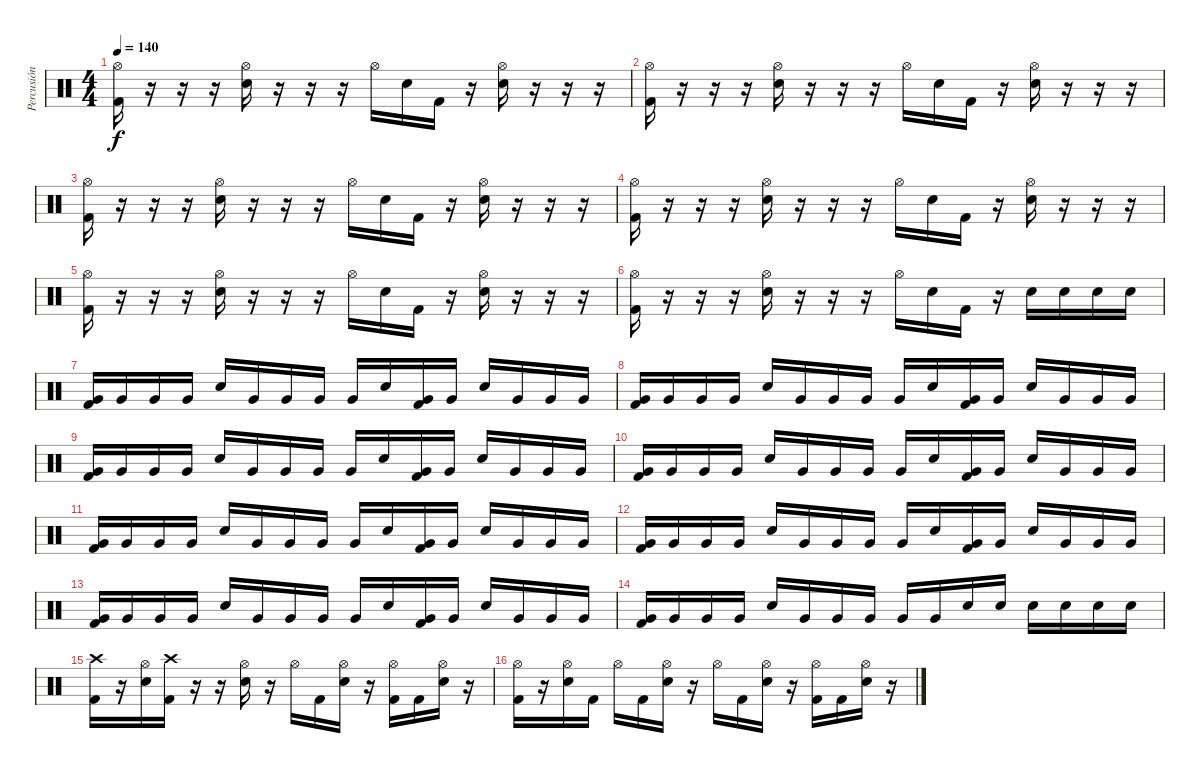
\track ("Percusión" "Percusión") {instrument percussion}
\staff {score}
\articulation defaults
\ts (4 4)
\tempo 140
\clef neutral
\ks c
("Hi-Hat (open)" "Kick (hit) 2").16{dy f} r.16 r.16 r.16 ("Hi-Hat (open)" "Snare (hit) 2").16 r.16 r.16 r.16 "Hi-Hat (open)".16 "Snare (hit) 2".16 "Kick (hit) 2".16 r.16 ("Hi-Hat (open)" "Snare (hit) 2").16 r.16 r.16 r.16 |
("Hi-Hat (open)" "Kick (hit) 2").16 r.16 r.16 r.16 ("Hi-Hat (open)" "Snare (hit) 2").16 r.16 r.16 r.16 "Hi-Hat (open)".16 "Snare (hit) 2".16 "Kick (hit) 2".16 r.16 ("Hi-Hat (open)" "Snare (hit) 2").16 r.16 r.16 r.16 |
("Hi-Hat (open)" "Kick (hit) 2").16 r.16 r.16 r.16 ("Hi-Hat (open)" "Snare (hit) 2").16 r.16 r.16 r.16 "Hi-Hat (open)".16 "Snare (hit) 2".16 "Kick (hit) 2".16 r.16 ("Hi-Hat (open)" "Snare (hit) 2").16 r.16 r.16 r.16 |
("Hi-Hat (open)" "Kick (hit) 2").16 r.16 r.16 r.16 ("Hi-Hat (open)" "Snare (hit) 2").16 r.16 r.16 r.16 "Hi-Hat (open)".16 "Snare (hit) 2".16 "Kick (hit) 2".16 r.16 ("Hi-Hat (open)" "Snare (hit) 2").16 r.16 r.16 r.16 |
("Hi-Hat (open)" "Kick (hit) 2").16 r.16 r.16 r.16 ("Hi-Hat (open)" "Snare (hit) 2").16 r.16 r.16 r.16 "Hi-Hat (open)".16 "Snare (hit) 2".16 "Kick (hit) 2".16 r.16 ("Hi-Hat (open)" "Snare (hit) 2").16 r.16 r.16 r.16 |
("Hi-Hat (open)" "Kick (hit) 2").16 r.16 r.16 r.16 ("Hi-Hat (open)" "Snare (hit) 2").16 r.16 r.16 r.16 "Hi-Hat (open)".16 "Snare (hit) 2".16 "Kick (hit) 2".16 r.16 "Snare (hit) 2".16 "Snare (hit) 2".16 "Snare (hit) 2".16 "Snare (hit) 2".16 |
("Very Low Tom (hit)" "Kick (hit) 2").16 "Very Low Tom (hit)".16 "Very Low Tom (hit)".16 "Very Low Tom (hit)".16 "Snare (hit) 2".16 "Very Low Tom (hit)".16 "Very Low Tom (hit)".16 "Very Low Tom (hit)".16 "Very Low Tom (hit)".16 "Snare (hit) 2".16 ("Very Low Tom (hit)" "Kick (hit) 2").16 "Very Low Tom (hit)".16 "Snare (hit) 2".16 "Very Low Tom (hit)".16 "Very Low Tom (hit)".16 "Very Low Tom (hit)".16 |
("Very Low Tom (hit)" "Kick (hit) 2").16 "Very Low Tom (hit)".16 "Very Low Tom (hit)".16 "Very Low Tom (hit)".16 "Snare (hit) 2".16 "Very Low Tom (hit)".16 "Very Low Tom (hit)".16 "Very Low Tom (hit)".16 "Very Low Tom (hit)".16 "Snare (hit) 2".16 ("Very Low Tom (hit)" "Kick (hit) 2").16 "Very Low Tom (hit)".16 "Snare (hit) 2".16 "Very Low Tom (hit)".16 "Very Low Tom (hit)".16 "Very Low Tom (hit)".16 |
("Very Low Tom (hit)" "Kick (hit) 2").16 "Very Low Tom (hit)".16 "Very Low Tom (hit)".16 "Very Low Tom (hit)".16 "Snare (hit) 2".16 "Very Low Tom (hit)".16 "Very Low Tom (hit)".16 "Very Low Tom (hit)".16 "Very Low Tom (hit)".16 "Snare (hit) 2".16 ("Very Low Tom (hit)" "Kick (hit) 2").16 "Very Low Tom (hit)".16 "Snare (hit) 2".16 "Very Low Tom (hit)".16 "Very Low Tom (hit)".16 "Very Low Tom (hit)".16 |
("Very Low Tom (hit)" "Kick (hit) 2").16 "Very Low Tom (hit)".16 "Very Low Tom (hit)".16 "Very Low Tom (hit)".16 "Snare (hit) 2".16 "Very Low Tom (hit)".16 "Very Low Tom (hit)".16 "Very Low Tom (hit)".16 "Very Low Tom (hit)".16 "Snare (hit) 2".16 ("Very Low Tom (hit)" "Kick (hit) 2").16 "Very Low Tom (hit)".16 "Snare (hit) 2".16 "Very Low Tom (hit)".16 "Very Low Tom (hit)".16 "Very Low Tom (hit)".16 |
("Very Low Tom (hit)" "Kick (hit) 2").16 "Very Low Tom (hit)".16 "Very Low Tom (hit)".16 "Very Low Tom (hit)".16 "Snare (hit) 2".16 "Very Low Tom (hit)".16 "Very Low Tom (hit)".16 "Very Low Tom (hit)".16 "Very Low Tom (hit)".16 "Snare (hit) 2".16 ("Very Low Tom (hit)" "Kick (hit) 2").16 "Very Low Tom (hit)".16 "Snare (hit) 2".16 "Very Low Tom (hit)".16 "Very Low Tom (hit)".16 "Very Low Tom (hit)".16 |
("Very Low Tom (hit)" "Kick (hit) 2").16 "Very Low Tom (hit)".16 "Very Low Tom (hit)".16 "Very Low Tom (hit)".16 "Snare (hit) 2".16 "Very Low Tom (hit)".16 "Very Low Tom (hit)".16 "Very Low Tom (hit)".16 "Very Low Tom (hit)".16 "Snare (hit) 2".16 ("Very Low Tom (hit)" "Kick (hit) 2").16 "Very Low Tom (hit)".16 "Snare (hit) 2".16 "Very Low Tom (hit)".16 "Very Low Tom (hit)".16 "Very Low Tom (hit)".16 |
("Very Low Tom (hit)" "Kick (hit) 2").16 "Very Low Tom (hit)".16 "Very Low Tom (hit)".16 "Very Low Tom (hit)".16 "Snare (hit) 2".16 "Very Low Tom (hit)".16 "Very Low Tom (hit)".16 "Very Low Tom (hit)".16 "Very Low Tom (hit)".16 "Snare (hit) 2".16 ("Very Low Tom (hit)" "Kick (hit) 2").16 "Very Low Tom (hit)".16 "Snare (hit) 2".16 "Very Low Tom (hit)".16 "Very Low Tom (hit)".16 "Very Low Tom (hit)".16 |
("Very Low Tom (hit)" "Kick (hit) 2").16 "Very Low Tom (hit)".16 "Very Low Tom (hit)".16 "Very Low Tom (hit)".16 "Snare (hit) 2".16 "Very Low Tom (hit)".16 "Very Low Tom (hit)".16 "Very Low Tom (hit)".16 "Very Low Tom (hit)".16 "Very Low Tom (hit)".16 "Snare (hit) 2".16 "Snare (hit) 2".16 "Snare (hit) 2".16 "Snare (hit) 2".16 "Snare (hit) 2".16 "Snare (hit) 2".16 |
("Crash high (hit)" "Kick (hit) 2").16 r.16 ("Hi-Hat (open)" "Snare (hit) 2").16 ("Crash high (hit)" "Kick (hit) 2").16 r.16 r.16 ("Hi-Hat (open)" "Snare (hit) 2").16 r.16 "Hi-Hat (open)".16 "Kick (hit) 2".16 ("Hi-Hat (open)" "Snare (hit) 2").16 r.16 ("Hi-Hat (open)" "Kick (hit) 2").16 "Kick (hit) 2".16 ("Hi-Hat (open)" "Snare (hit) 2").16 r.16 |
("Hi-Hat (open)" "Kick (hit) 2").16 r.16 ("Hi-Hat (open)" "Snare (hit) 2").16 "Kick (hit) 2".16 "Hi-Hat (open)".16 "Kick (hit) 2".16 ("Hi-Hat (open)" "Snare (hit) 2").16 r.16 "Hi-Hat (open)".16 "Kick (hit) 2".16 ("Hi-Hat (open)" "Snare (hit) 2").16 r.16 ("Hi-Hat (open)" "Kick (hit) 2").16 "Kick (hit) 2".16 ("Hi-Hat (open)" "Snare (hit) 2").16 r.16
